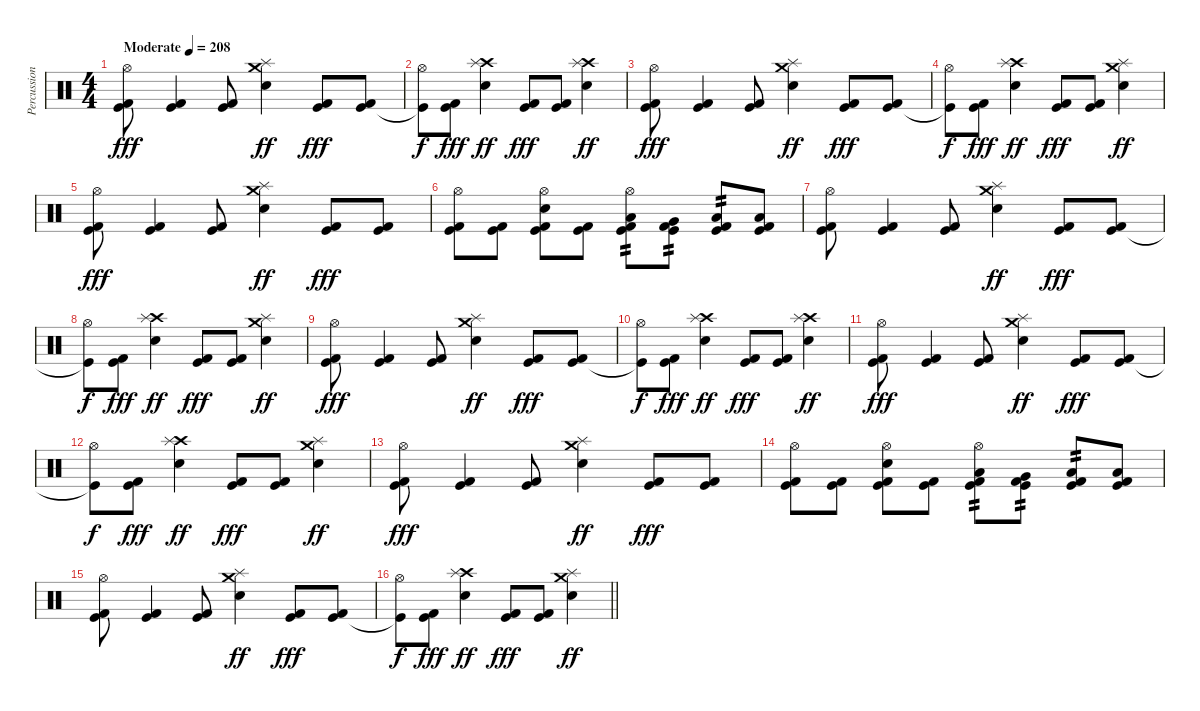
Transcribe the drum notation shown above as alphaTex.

\track ("Percussion" "Percussion") {instrument percussion}
\staff {score}
\articulation defaults
\ts (4 4)
\tempo (208 "Moderate")
\clef neutral
\ks c
("Hi-Hat (open)" "Kick (hit) 2" "Kick (hit)").8{dy fff} ("Kick (hit) 2" "Kick (hit)").4 ("Kick (hit) 2" "Kick (hit)").8 ("Crash medium (hit)" "Splash (hit)" "Electric Snare (hit)").4{dy ff} ("Kick (hit) 2" "Kick (hit)").8{dy fff} ("Kick (hit) 2" "Kick (hit)").8 |
("Hi-Hat (open)" "Kick (hit)"{t}).8{dy f} ("Kick (hit) 2" "Kick (hit)").8{dy fff} ("Crash high (hit)" "Splash (hit)" "Electric Snare (hit)").4{dy ff} ("Kick (hit) 2" "Kick (hit)").8{dy fff} ("Kick (hit) 2" "Kick (hit)").8 ("Crash high (hit)" "Splash (hit)" "Electric Snare (hit)").4{dy ff} |
("Hi-Hat (open)" "Kick (hit) 2" "Kick (hit)").8{dy fff} ("Kick (hit) 2" "Kick (hit)").4 ("Kick (hit) 2" "Kick (hit)").8 ("Crash medium (hit)" "Splash (hit)" "Electric Snare (hit)").4{dy ff} ("Kick (hit) 2" "Kick (hit)").8{dy fff} ("Kick (hit) 2" "Kick (hit)").8 |
("Hi-Hat (open)" "Kick (hit)"{t}).8{dy f} ("Kick (hit) 2" "Kick (hit)").8{dy fff} ("Crash high (hit)" "Splash (hit)" "Electric Snare (hit)").4{dy ff} ("Kick (hit) 2" "Kick (hit)").8{dy fff} ("Kick (hit) 2" "Kick (hit)").8 ("Crash medium (hit)" "Splash (hit)" "Electric Snare (hit)").4{dy ff} |
("Hi-Hat (open)" "Kick (hit) 2" "Kick (hit)").8{dy fff} ("Kick (hit) 2" "Kick (hit)").4 ("Kick (hit) 2" "Kick (hit)").8 ("Crash medium (hit)" "Splash (hit)" "Electric Snare (hit)").4{dy ff} ("Kick (hit) 2" "Kick (hit)").8{dy fff} ("Kick (hit) 2" "Kick (hit)").8 |
("Hi-Hat (open)" "Kick (hit) 2" "Kick (hit)").8 ("Kick (hit) 2" "Kick (hit)").8 ("Hi-Hat (open)" "Electric Snare (hit)" "Kick (hit) 2" "Kick (hit)").8 ("Kick (hit) 2" "Kick (hit)").8 ("Hi-Hat (open)" "Low Tom (hit)" "Kick (hit) 2" "Kick (hit)").8{tp 2} ("Very Low Tom (hit)" "Kick (hit) 2" "Kick (hit)").8{tp 2} ("Low Floor Tom (hit)" "Kick (hit) 2" "Kick (hit)").8{tp 2} ("Low Floor Tom (hit)" "Kick (hit) 2" "Kick (hit)").8 |
("Hi-Hat (open)" "Kick (hit) 2" "Kick (hit)").8 ("Kick (hit) 2" "Kick (hit)").4 ("Kick (hit) 2" "Kick (hit)").8 ("Crash medium (hit)" "Splash (hit)" "Electric Snare (hit)").4{dy ff} ("Kick (hit) 2" "Kick (hit)").8{dy fff} ("Kick (hit) 2" "Kick (hit)").8 |
("Hi-Hat (open)" "Kick (hit)"{t}).8{dy f} ("Kick (hit) 2" "Kick (hit)").8{dy fff} ("Crash high (hit)" "Splash (hit)" "Electric Snare (hit)").4{dy ff} ("Kick (hit) 2" "Kick (hit)").8{dy fff} ("Kick (hit) 2" "Kick (hit)").8 ("Crash medium (hit)" "Splash (hit)" "Electric Snare (hit)").4{dy ff} |
("Hi-Hat (open)" "Kick (hit) 2" "Kick (hit)").8{dy fff} ("Kick (hit) 2" "Kick (hit)").4 ("Kick (hit) 2" "Kick (hit)").8 ("Crash medium (hit)" "Splash (hit)" "Electric Snare (hit)").4{dy ff} ("Kick (hit) 2" "Kick (hit)").8{dy fff} ("Kick (hit) 2" "Kick (hit)").8 |
("Hi-Hat (open)" "Kick (hit)"{t}).8{dy f} ("Kick (hit) 2" "Kick (hit)").8{dy fff} ("Crash high (hit)" "Splash (hit)" "Electric Snare (hit)").4{dy ff} ("Kick (hit) 2" "Kick (hit)").8{dy fff} ("Kick (hit) 2" "Kick (hit)").8 ("Crash high (hit)" "Splash (hit)" "Electric Snare (hit)").4{dy ff} |
("Hi-Hat (open)" "Kick (hit) 2" "Kick (hit)").8{dy fff} ("Kick (hit) 2" "Kick (hit)").4 ("Kick (hit) 2" "Kick (hit)").8 ("Crash medium (hit)" "Splash (hit)" "Electric Snare (hit)").4{dy ff} ("Kick (hit) 2" "Kick (hit)").8{dy fff} ("Kick (hit) 2" "Kick (hit)").8 |
("Hi-Hat (open)" "Kick (hit)"{t}).8{dy f} ("Kick (hit) 2" "Kick (hit)").8{dy fff} ("Crash high (hit)" "Splash (hit)" "Electric Snare (hit)").4{dy ff} ("Kick (hit) 2" "Kick (hit)").8{dy fff} ("Kick (hit) 2" "Kick (hit)").8 ("Crash medium (hit)" "Splash (hit)" "Electric Snare (hit)").4{dy ff} |
("Hi-Hat (open)" "Kick (hit) 2" "Kick (hit)").8{dy fff} ("Kick (hit) 2" "Kick (hit)").4 ("Kick (hit) 2" "Kick (hit)").8 ("Crash medium (hit)" "Splash (hit)" "Electric Snare (hit)").4{dy ff} ("Kick (hit) 2" "Kick (hit)").8{dy fff} ("Kick (hit) 2" "Kick (hit)").8 |
("Hi-Hat (open)" "Kick (hit) 2" "Kick (hit)").8 ("Kick (hit) 2" "Kick (hit)").8 ("Hi-Hat (open)" "Electric Snare (hit)" "Kick (hit) 2" "Kick (hit)").8 ("Kick (hit) 2" "Kick (hit)").8 ("Hi-Hat (open)" "Low Tom (hit)" "Kick (hit) 2" "Kick (hit)").8{tp 2} ("Very Low Tom (hit)" "Kick (hit) 2" "Kick (hit)").8{tp 2} ("Low Floor Tom (hit)" "Kick (hit) 2" "Kick (hit)").8{tp 2} ("Low Floor Tom (hit)" "Kick (hit) 2" "Kick (hit)").8 |
("Hi-Hat (open)" "Kick (hit) 2" "Kick (hit)").8 ("Kick (hit) 2" "Kick (hit)").4 ("Kick (hit) 2" "Kick (hit)").8 ("Crash medium (hit)" "Splash (hit)" "Electric Snare (hit)").4{dy ff} ("Kick (hit) 2" "Kick (hit)").8{dy fff} ("Kick (hit) 2" "Kick (hit)").8 |
\barLineRight lightlight
("Hi-Hat (open)" "Kick (hit)"{t}).8{dy f} ("Kick (hit) 2" "Kick (hit)").8{dy fff} ("Crash high (hit)" "Splash (hit)" "Electric Snare (hit)").4{dy ff} ("Kick (hit) 2" "Kick (hit)").8{dy fff} ("Kick (hit) 2" "Kick (hit)").8 ("Crash medium (hit)" "Splash (hit)" "Electric Snare (hit)").4{dy ff}
